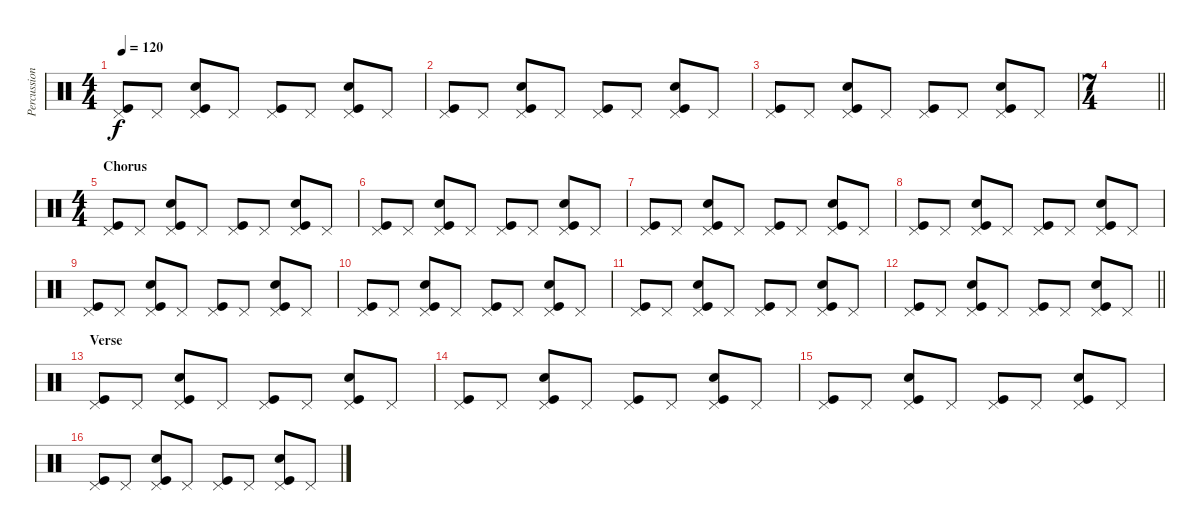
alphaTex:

\track ("Percussion" "Percussion") {instrument percussion}
\staff {score}
\articulation defaults
\ts (4 4)
\tempo 120
\clef neutral
\ks c
("Pedal Hi-Hat (hit)" "Kick (hit)").8{dy f} "Pedal Hi-Hat (hit)".8 ("Pedal Hi-Hat (hit)" "Electric Snare (hit)" "Kick (hit)").8 "Pedal Hi-Hat (hit)".8 ("Pedal Hi-Hat (hit)" "Kick (hit)").8 "Pedal Hi-Hat (hit)".8 ("Pedal Hi-Hat (hit)" "Electric Snare (hit)" "Kick (hit)").8 "Pedal Hi-Hat (hit)".8 |
("Pedal Hi-Hat (hit)" "Kick (hit)").8 "Pedal Hi-Hat (hit)".8 ("Pedal Hi-Hat (hit)" "Electric Snare (hit)" "Kick (hit)").8 "Pedal Hi-Hat (hit)".8 ("Pedal Hi-Hat (hit)" "Kick (hit)").8 "Pedal Hi-Hat (hit)".8 ("Pedal Hi-Hat (hit)" "Electric Snare (hit)" "Kick (hit)").8 "Pedal Hi-Hat (hit)".8 |
("Pedal Hi-Hat (hit)" "Kick (hit)").8 "Pedal Hi-Hat (hit)".8 ("Pedal Hi-Hat (hit)" "Electric Snare (hit)" "Kick (hit)").8 "Pedal Hi-Hat (hit)".8 ("Pedal Hi-Hat (hit)" "Kick (hit)").8 "Pedal Hi-Hat (hit)".8 ("Pedal Hi-Hat (hit)" "Electric Snare (hit)" "Kick (hit)").8 "Pedal Hi-Hat (hit)".8 |
\ts (7 4)
\barLineRight lightlight
|
\ts (4 4)
\section ("" "Chorus")
("Pedal Hi-Hat (hit)" "Kick (hit)").8 "Pedal Hi-Hat (hit)".8 ("Pedal Hi-Hat (hit)" "Electric Snare (hit)" "Kick (hit)").8 "Pedal Hi-Hat (hit)".8 ("Pedal Hi-Hat (hit)" "Kick (hit)").8 "Pedal Hi-Hat (hit)".8 ("Pedal Hi-Hat (hit)" "Electric Snare (hit)" "Kick (hit)").8 "Pedal Hi-Hat (hit)".8 |
("Pedal Hi-Hat (hit)" "Kick (hit)").8 "Pedal Hi-Hat (hit)".8 ("Pedal Hi-Hat (hit)" "Electric Snare (hit)" "Kick (hit)").8 "Pedal Hi-Hat (hit)".8 ("Pedal Hi-Hat (hit)" "Kick (hit)").8 "Pedal Hi-Hat (hit)".8 ("Pedal Hi-Hat (hit)" "Electric Snare (hit)" "Kick (hit)").8 "Pedal Hi-Hat (hit)".8 |
("Pedal Hi-Hat (hit)" "Kick (hit)").8 "Pedal Hi-Hat (hit)".8 ("Pedal Hi-Hat (hit)" "Electric Snare (hit)" "Kick (hit)").8 "Pedal Hi-Hat (hit)".8 ("Pedal Hi-Hat (hit)" "Kick (hit)").8 "Pedal Hi-Hat (hit)".8 ("Pedal Hi-Hat (hit)" "Electric Snare (hit)" "Kick (hit)").8 "Pedal Hi-Hat (hit)".8 |
("Pedal Hi-Hat (hit)" "Kick (hit)").8 "Pedal Hi-Hat (hit)".8 ("Pedal Hi-Hat (hit)" "Electric Snare (hit)" "Kick (hit)").8 "Pedal Hi-Hat (hit)".8 ("Pedal Hi-Hat (hit)" "Kick (hit)").8 "Pedal Hi-Hat (hit)".8 ("Pedal Hi-Hat (hit)" "Electric Snare (hit)" "Kick (hit)").8 "Pedal Hi-Hat (hit)".8 |
("Pedal Hi-Hat (hit)" "Kick (hit)").8 "Pedal Hi-Hat (hit)".8 ("Pedal Hi-Hat (hit)" "Electric Snare (hit)" "Kick (hit)").8 "Pedal Hi-Hat (hit)".8 ("Pedal Hi-Hat (hit)" "Kick (hit)").8 "Pedal Hi-Hat (hit)".8 ("Pedal Hi-Hat (hit)" "Electric Snare (hit)" "Kick (hit)").8 "Pedal Hi-Hat (hit)".8 |
("Pedal Hi-Hat (hit)" "Kick (hit)").8 "Pedal Hi-Hat (hit)".8 ("Pedal Hi-Hat (hit)" "Electric Snare (hit)" "Kick (hit)").8 "Pedal Hi-Hat (hit)".8 ("Pedal Hi-Hat (hit)" "Kick (hit)").8 "Pedal Hi-Hat (hit)".8 ("Pedal Hi-Hat (hit)" "Electric Snare (hit)" "Kick (hit)").8 "Pedal Hi-Hat (hit)".8 |
("Pedal Hi-Hat (hit)" "Kick (hit)").8 "Pedal Hi-Hat (hit)".8 ("Pedal Hi-Hat (hit)" "Electric Snare (hit)" "Kick (hit)").8 "Pedal Hi-Hat (hit)".8 ("Pedal Hi-Hat (hit)" "Kick (hit)").8 "Pedal Hi-Hat (hit)".8 ("Pedal Hi-Hat (hit)" "Electric Snare (hit)" "Kick (hit)").8 "Pedal Hi-Hat (hit)".8 |
\barLineRight lightlight
("Pedal Hi-Hat (hit)" "Kick (hit)").8 "Pedal Hi-Hat (hit)".8 ("Pedal Hi-Hat (hit)" "Electric Snare (hit)" "Kick (hit)").8 "Pedal Hi-Hat (hit)".8 ("Pedal Hi-Hat (hit)" "Kick (hit)").8 "Pedal Hi-Hat (hit)".8 ("Pedal Hi-Hat (hit)" "Electric Snare (hit)" "Kick (hit)").8 "Pedal Hi-Hat (hit)".8 |
\section ("" "Verse")
("Pedal Hi-Hat (hit)" "Kick (hit)").8 "Pedal Hi-Hat (hit)".8 ("Pedal Hi-Hat (hit)" "Electric Snare (hit)" "Kick (hit)").8 "Pedal Hi-Hat (hit)".8 ("Pedal Hi-Hat (hit)" "Kick (hit)").8 "Pedal Hi-Hat (hit)".8 ("Pedal Hi-Hat (hit)" "Electric Snare (hit)" "Kick (hit)").8 "Pedal Hi-Hat (hit)".8 |
("Pedal Hi-Hat (hit)" "Kick (hit)").8 "Pedal Hi-Hat (hit)".8 ("Pedal Hi-Hat (hit)" "Electric Snare (hit)" "Kick (hit)").8 "Pedal Hi-Hat (hit)".8 ("Pedal Hi-Hat (hit)" "Kick (hit)").8 "Pedal Hi-Hat (hit)".8 ("Pedal Hi-Hat (hit)" "Electric Snare (hit)" "Kick (hit)").8 "Pedal Hi-Hat (hit)".8 |
("Pedal Hi-Hat (hit)" "Kick (hit)").8 "Pedal Hi-Hat (hit)".8 ("Pedal Hi-Hat (hit)" "Electric Snare (hit)" "Kick (hit)").8 "Pedal Hi-Hat (hit)".8 ("Pedal Hi-Hat (hit)" "Kick (hit)").8 "Pedal Hi-Hat (hit)".8 ("Pedal Hi-Hat (hit)" "Electric Snare (hit)" "Kick (hit)").8 "Pedal Hi-Hat (hit)".8 |
("Pedal Hi-Hat (hit)" "Kick (hit)").8 "Pedal Hi-Hat (hit)".8 ("Pedal Hi-Hat (hit)" "Electric Snare (hit)" "Kick (hit)").8 "Pedal Hi-Hat (hit)".8 ("Pedal Hi-Hat (hit)" "Kick (hit)").8 "Pedal Hi-Hat (hit)".8 ("Pedal Hi-Hat (hit)" "Electric Snare (hit)" "Kick (hit)").8 "Pedal Hi-Hat (hit)".8
